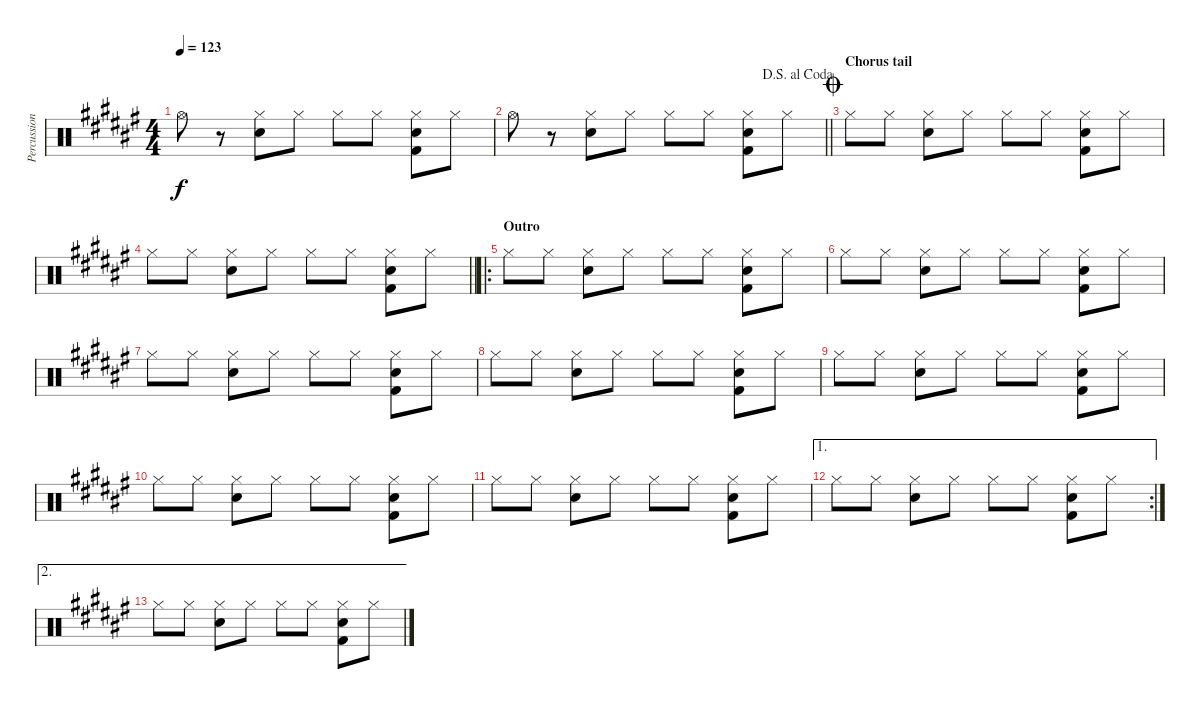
\track ("Percussion" "Percussion") {instrument percussion}
\staff {score}
\articulation defaults
\ts (4 4)
\tempo 123
\clef neutral
\ks f# "Hi-Hat (open)".8{dy f}
r.8 ("Hi-Hat (closed)" "Snare (hit) 2").8 "Hi-Hat (closed)".8 "Hi-Hat (closed)".8 "Hi-Hat (closed)".8 ("Hi-Hat (closed)" "Snare (hit) 2" "Kick (hit) 2").8 "Hi-Hat (closed)".8 |
\jump dalsegnoalcoda
\barLineRight lightlight "Hi-Hat (open)".8
r.8 ("Hi-Hat (closed)" "Snare (hit) 2").8 "Hi-Hat (closed)".8 "Hi-Hat (closed)".8 "Hi-Hat (closed)".8 ("Hi-Hat (closed)" "Snare (hit) 2" "Kick (hit) 2").8 "Hi-Hat (closed)".8 |
\section ("" "Chorus tail")
\jump coda "Hi-Hat (closed)".8 "Hi-Hat (closed)".8
("Hi-Hat (closed)" "Snare (hit) 2").8 "Hi-Hat (closed)".8 "Hi-Hat (closed)".8 "Hi-Hat (closed)".8 ("Hi-Hat (closed)" "Snare (hit) 2" "Kick (hit) 2").8 "Hi-Hat (closed)".8 |
\barLineRight lightlight "Hi-Hat (closed)".8 "Hi-Hat (closed)".8
("Hi-Hat (closed)" "Snare (hit) 2").8 "Hi-Hat (closed)".8 "Hi-Hat (closed)".8 "Hi-Hat (closed)".8 ("Hi-Hat (closed)" "Snare (hit) 2" "Kick (hit) 2").8 "Hi-Hat (closed)".8 |
\ro
\section ("" "Outro")
"Hi-Hat (closed)".8 "Hi-Hat (closed)".8 ("Hi-Hat (closed)" "Snare (hit) 2").8 "Hi-Hat (closed)".8 "Hi-Hat (closed)".8 "Hi-Hat (closed)".8 ("Hi-Hat (closed)" "Snare (hit) 2" "Kick (hit) 2").8 "Hi-Hat (closed)".8 |
"Hi-Hat (closed)".8 "Hi-Hat (closed)".8 ("Hi-Hat (closed)" "Snare (hit) 2").8 "Hi-Hat (closed)".8 "Hi-Hat (closed)".8 "Hi-Hat (closed)".8 ("Hi-Hat (closed)" "Snare (hit) 2" "Kick (hit) 2").8 "Hi-Hat (closed)".8 |
"Hi-Hat (closed)".8 "Hi-Hat (closed)".8 ("Hi-Hat (closed)" "Snare (hit) 2").8 "Hi-Hat (closed)".8 "Hi-Hat (closed)".8 "Hi-Hat (closed)".8 ("Hi-Hat (closed)" "Snare (hit) 2" "Kick (hit) 2").8 "Hi-Hat (closed)".8 |
"Hi-Hat (closed)".8 "Hi-Hat (closed)".8 ("Hi-Hat (closed)" "Snare (hit) 2").8 "Hi-Hat (closed)".8 "Hi-Hat (closed)".8 "Hi-Hat (closed)".8 ("Hi-Hat (closed)" "Snare (hit) 2" "Kick (hit) 2").8 "Hi-Hat (closed)".8 |
"Hi-Hat (closed)".8 "Hi-Hat (closed)".8 ("Hi-Hat (closed)" "Snare (hit) 2").8 "Hi-Hat (closed)".8 "Hi-Hat (closed)".8 "Hi-Hat (closed)".8 ("Hi-Hat (closed)" "Snare (hit) 2" "Kick (hit) 2").8 "Hi-Hat (closed)".8 |
"Hi-Hat (closed)".8 "Hi-Hat (closed)".8 ("Hi-Hat (closed)" "Snare (hit) 2").8 "Hi-Hat (closed)".8 "Hi-Hat (closed)".8 "Hi-Hat (closed)".8 ("Hi-Hat (closed)" "Snare (hit) 2" "Kick (hit) 2").8 "Hi-Hat (closed)".8 |
"Hi-Hat (closed)".8 "Hi-Hat (closed)".8 ("Hi-Hat (closed)" "Snare (hit) 2").8 "Hi-Hat (closed)".8 "Hi-Hat (closed)".8 "Hi-Hat (closed)".8 ("Hi-Hat (closed)" "Snare (hit) 2" "Kick (hit) 2").8 "Hi-Hat (closed)".8 |
\ae 1
\rc 2 "Hi-Hat (closed)".8 "Hi-Hat (closed)".8
("Hi-Hat (closed)" "Snare (hit) 2").8 "Hi-Hat (closed)".8 "Hi-Hat (closed)".8 "Hi-Hat (closed)".8 ("Hi-Hat (closed)" "Snare (hit) 2" "Kick (hit) 2").8 "Hi-Hat (closed)".8 |
\ae 2 "Hi-Hat (closed)".8 "Hi-Hat (closed)".8
("Hi-Hat (closed)" "Snare (hit) 2").8 "Hi-Hat (closed)".8 "Hi-Hat (closed)".8 "Hi-Hat (closed)".8 ("Hi-Hat (closed)" "Snare (hit) 2" "Kick (hit) 2").8 "Hi-Hat (closed)".8
